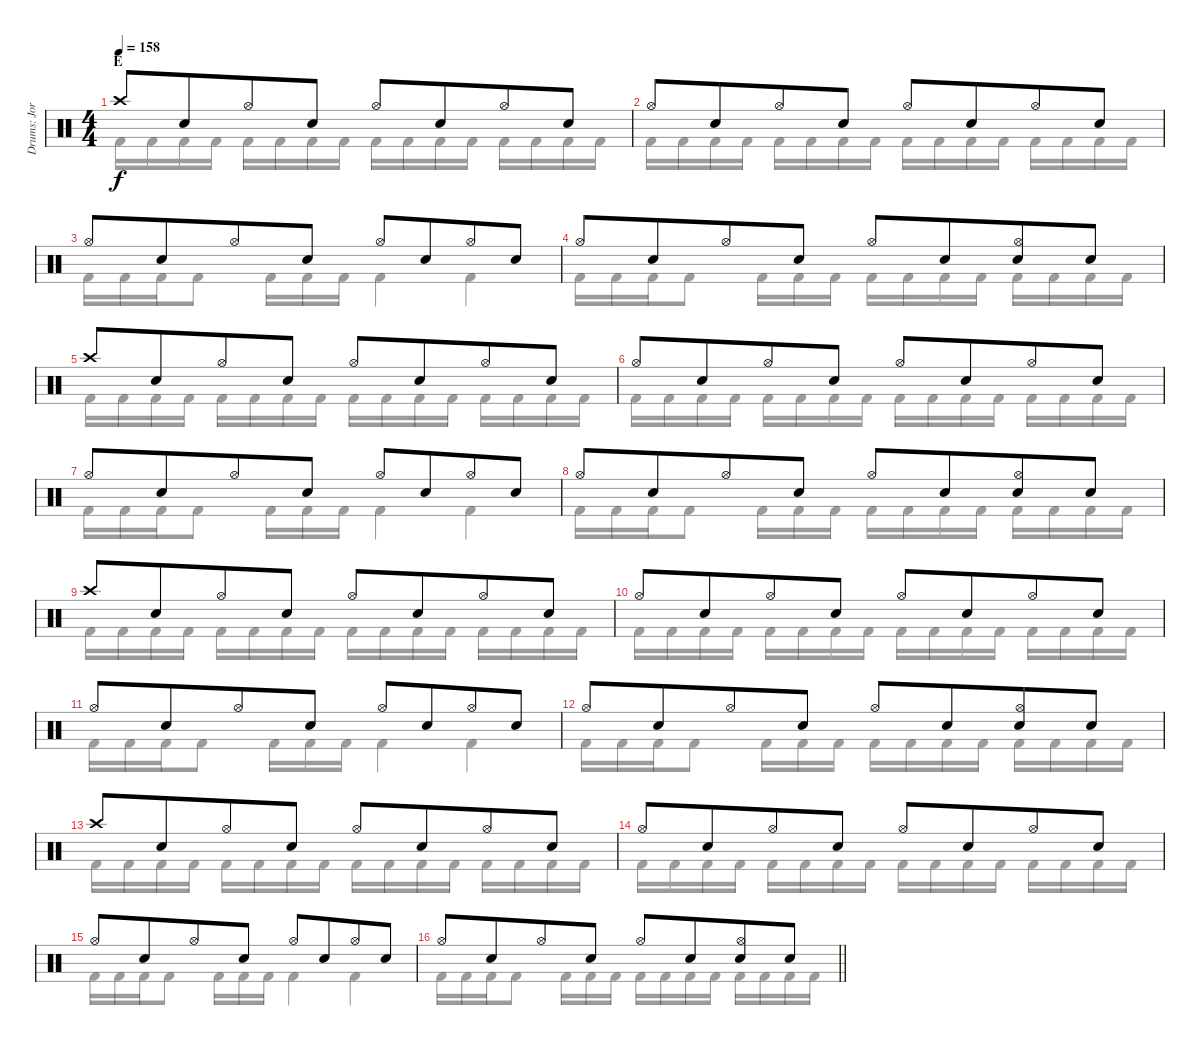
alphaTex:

\track ("Drums: Jorg" "Drums: Jor") {instrument percussion}
\staff {score}
\articulation defaults
\voice
\ts (4 4)
\section ("" "E")
\tempo 158
\clef neutral
\ks c "Crash high (hit)".8{dy f} "Snare (hit) 2".8{beam merge} "Hi-Hat (open)".8 "Snare (hit) 2".8 "Hi-Hat (open)".8 "Snare (hit) 2".8{beam merge} "Hi-Hat (open)".8 "Snare (hit) 2".8
|
"Hi-Hat (open)".8 "Snare (hit) 2".8{beam merge} "Hi-Hat (open)".8 "Snare (hit) 2".8 "Hi-Hat (open)".8 "Snare (hit) 2".8{beam merge} "Hi-Hat (open)".8 "Snare (hit) 2".8 |
"Hi-Hat (open)".8 "Snare (hit) 2".8{beam merge} "Hi-Hat (open)".8 "Snare (hit) 2".8 "Hi-Hat (open)".8 "Snare (hit) 2".8{beam merge} "Hi-Hat (open)".8 "Snare (hit) 2".8 |
"Hi-Hat (open)".8 "Snare (hit) 2".8{beam merge} "Hi-Hat (open)".8 "Snare (hit) 2".8 "Hi-Hat (open)".8 "Snare (hit) 2".8{beam merge} ("Hi-Hat (open)" "Snare (hit) 2").8 "Snare (hit) 2".8 |
"Crash high (hit)".8 "Snare (hit) 2".8{beam merge} "Hi-Hat (open)".8 "Snare (hit) 2".8 "Hi-Hat (open)".8 "Snare (hit) 2".8{beam merge} "Hi-Hat (open)".8 "Snare (hit) 2".8 |
"Hi-Hat (open)".8 "Snare (hit) 2".8{beam merge} "Hi-Hat (open)".8 "Snare (hit) 2".8 "Hi-Hat (open)".8 "Snare (hit) 2".8{beam merge} "Hi-Hat (open)".8 "Snare (hit) 2".8 |
"Hi-Hat (open)".8 "Snare (hit) 2".8{beam merge} "Hi-Hat (open)".8 "Snare (hit) 2".8 "Hi-Hat (open)".8 "Snare (hit) 2".8{beam merge} "Hi-Hat (open)".8 "Snare (hit) 2".8 |
"Hi-Hat (open)".8 "Snare (hit) 2".8{beam merge} "Hi-Hat (open)".8 "Snare (hit) 2".8 "Hi-Hat (open)".8 "Snare (hit) 2".8{beam merge} ("Hi-Hat (open)" "Snare (hit) 2").8 "Snare (hit) 2".8 |
"Crash high (hit)".8 "Snare (hit) 2".8{beam merge} "Hi-Hat (open)".8 "Snare (hit) 2".8 "Hi-Hat (open)".8 "Snare (hit) 2".8{beam merge} "Hi-Hat (open)".8 "Snare (hit) 2".8 |
"Hi-Hat (open)".8 "Snare (hit) 2".8{beam merge} "Hi-Hat (open)".8 "Snare (hit) 2".8 "Hi-Hat (open)".8 "Snare (hit) 2".8{beam merge} "Hi-Hat (open)".8 "Snare (hit) 2".8 |
"Hi-Hat (open)".8 "Snare (hit) 2".8{beam merge} "Hi-Hat (open)".8 "Snare (hit) 2".8 "Hi-Hat (open)".8 "Snare (hit) 2".8{beam merge} "Hi-Hat (open)".8 "Snare (hit) 2".8 |
"Hi-Hat (open)".8 "Snare (hit) 2".8{beam merge} "Hi-Hat (open)".8 "Snare (hit) 2".8 "Hi-Hat (open)".8 "Snare (hit) 2".8{beam merge} ("Hi-Hat (open)" "Snare (hit) 2").8 "Snare (hit) 2".8 |
"Crash high (hit)".8 "Snare (hit) 2".8{beam merge} "Hi-Hat (open)".8 "Snare (hit) 2".8 "Hi-Hat (open)".8 "Snare (hit) 2".8{beam merge} "Hi-Hat (open)".8 "Snare (hit) 2".8 |
"Hi-Hat (open)".8 "Snare (hit) 2".8{beam merge} "Hi-Hat (open)".8 "Snare (hit) 2".8 "Hi-Hat (open)".8 "Snare (hit) 2".8{beam merge} "Hi-Hat (open)".8 "Snare (hit) 2".8 |
"Hi-Hat (open)".8 "Snare (hit) 2".8{beam merge} "Hi-Hat (open)".8 "Snare (hit) 2".8 "Hi-Hat (open)".8 "Snare (hit) 2".8{beam merge} "Hi-Hat (open)".8 "Snare (hit) 2".8 |
\barLineRight lightlight "Hi-Hat (open)".8 "Snare (hit) 2".8{beam merge} "Hi-Hat (open)".8 "Snare (hit) 2".8 "Hi-Hat (open)".8 "Snare (hit) 2".8{beam merge}
("Hi-Hat (open)" "Snare (hit) 2").8 "Snare (hit) 2".8
\voice
\clef neutral
\ottava regular
\simile none
\ks c "Kick (hit) 2".16{dy f} "Kick (hit) 2".16 "Kick (hit) 2".16 "Kick (hit) 2".16 "Kick (hit) 2".16 "Kick (hit) 2".16 "Kick (hit) 2".16 "Kick (hit) 2".16 "Kick (hit) 2".16 "Kick (hit) 2".16 "Kick (hit) 2".16 "Kick (hit) 2".16 "Kick (hit) 2".16 "Kick (hit) 2".16 "Kick (hit) 2".16 "Kick (hit) 2".16
|
"Kick (hit) 2".16 "Kick (hit) 2".16 "Kick (hit) 2".16 "Kick (hit) 2".16 "Kick (hit) 2".16 "Kick (hit) 2".16 "Kick (hit) 2".16 "Kick (hit) 2".16 "Kick (hit) 2".16 "Kick (hit) 2".16 "Kick (hit) 2".16 "Kick (hit) 2".16 "Kick (hit) 2".16 "Kick (hit) 2".16 "Kick (hit) 2".16 "Kick (hit) 2".16 |
"Kick (hit) 2".16 "Kick (hit) 2".16 "Kick (hit) 2".16 "Kick (hit) 2".8 "Kick (hit) 2".16 "Kick (hit) 2".16 "Kick (hit) 2".16 "Kick (hit) 2".4 "Kick (hit) 2".4 |
"Kick (hit) 2".16 "Kick (hit) 2".16 "Kick (hit) 2".16 "Kick (hit) 2".8 "Kick (hit) 2".16 "Kick (hit) 2".16 "Kick (hit) 2".16 "Kick (hit) 2".16 "Kick (hit) 2".16 "Kick (hit) 2".16 "Kick (hit) 2".16 "Kick (hit) 2".16 "Kick (hit) 2".16 "Kick (hit) 2".16 "Kick (hit) 2".16 |
"Kick (hit) 2".16 "Kick (hit) 2".16 "Kick (hit) 2".16 "Kick (hit) 2".16 "Kick (hit) 2".16 "Kick (hit) 2".16 "Kick (hit) 2".16 "Kick (hit) 2".16 "Kick (hit) 2".16 "Kick (hit) 2".16 "Kick (hit) 2".16 "Kick (hit) 2".16 "Kick (hit) 2".16 "Kick (hit) 2".16 "Kick (hit) 2".16 "Kick (hit) 2".16 |
"Kick (hit) 2".16 "Kick (hit) 2".16 "Kick (hit) 2".16 "Kick (hit) 2".16 "Kick (hit) 2".16 "Kick (hit) 2".16 "Kick (hit) 2".16 "Kick (hit) 2".16 "Kick (hit) 2".16 "Kick (hit) 2".16 "Kick (hit) 2".16 "Kick (hit) 2".16 "Kick (hit) 2".16 "Kick (hit) 2".16 "Kick (hit) 2".16 "Kick (hit) 2".16 |
"Kick (hit) 2".16 "Kick (hit) 2".16 "Kick (hit) 2".16 "Kick (hit) 2".8 "Kick (hit) 2".16 "Kick (hit) 2".16 "Kick (hit) 2".16 "Kick (hit) 2".4 "Kick (hit) 2".4 |
"Kick (hit) 2".16 "Kick (hit) 2".16 "Kick (hit) 2".16 "Kick (hit) 2".8 "Kick (hit) 2".16 "Kick (hit) 2".16 "Kick (hit) 2".16 "Kick (hit) 2".16 "Kick (hit) 2".16 "Kick (hit) 2".16 "Kick (hit) 2".16 "Kick (hit) 2".16 "Kick (hit) 2".16 "Kick (hit) 2".16 "Kick (hit) 2".16 |
"Kick (hit) 2".16 "Kick (hit) 2".16 "Kick (hit) 2".16 "Kick (hit) 2".16 "Kick (hit) 2".16 "Kick (hit) 2".16 "Kick (hit) 2".16 "Kick (hit) 2".16 "Kick (hit) 2".16 "Kick (hit) 2".16 "Kick (hit) 2".16 "Kick (hit) 2".16 "Kick (hit) 2".16 "Kick (hit) 2".16 "Kick (hit) 2".16 "Kick (hit) 2".16 |
"Kick (hit) 2".16 "Kick (hit) 2".16 "Kick (hit) 2".16 "Kick (hit) 2".16 "Kick (hit) 2".16 "Kick (hit) 2".16 "Kick (hit) 2".16 "Kick (hit) 2".16 "Kick (hit) 2".16 "Kick (hit) 2".16 "Kick (hit) 2".16 "Kick (hit) 2".16 "Kick (hit) 2".16 "Kick (hit) 2".16 "Kick (hit) 2".16 "Kick (hit) 2".16 |
"Kick (hit) 2".16 "Kick (hit) 2".16 "Kick (hit) 2".16 "Kick (hit) 2".8 "Kick (hit) 2".16 "Kick (hit) 2".16 "Kick (hit) 2".16 "Kick (hit) 2".4 "Kick (hit) 2".4 |
"Kick (hit) 2".16 "Kick (hit) 2".16 "Kick (hit) 2".16 "Kick (hit) 2".8 "Kick (hit) 2".16 "Kick (hit) 2".16 "Kick (hit) 2".16 "Kick (hit) 2".16 "Kick (hit) 2".16 "Kick (hit) 2".16 "Kick (hit) 2".16 "Kick (hit) 2".16 "Kick (hit) 2".16 "Kick (hit) 2".16 "Kick (hit) 2".16 |
"Kick (hit) 2".16 "Kick (hit) 2".16 "Kick (hit) 2".16 "Kick (hit) 2".16 "Kick (hit) 2".16 "Kick (hit) 2".16 "Kick (hit) 2".16 "Kick (hit) 2".16 "Kick (hit) 2".16 "Kick (hit) 2".16 "Kick (hit) 2".16 "Kick (hit) 2".16 "Kick (hit) 2".16 "Kick (hit) 2".16 "Kick (hit) 2".16 "Kick (hit) 2".16 |
"Kick (hit) 2".16 "Kick (hit) 2".16 "Kick (hit) 2".16 "Kick (hit) 2".16 "Kick (hit) 2".16 "Kick (hit) 2".16 "Kick (hit) 2".16 "Kick (hit) 2".16 "Kick (hit) 2".16 "Kick (hit) 2".16 "Kick (hit) 2".16 "Kick (hit) 2".16 "Kick (hit) 2".16 "Kick (hit) 2".16 "Kick (hit) 2".16 "Kick (hit) 2".16 |
"Kick (hit) 2".16 "Kick (hit) 2".16 "Kick (hit) 2".16 "Kick (hit) 2".8 "Kick (hit) 2".16 "Kick (hit) 2".16 "Kick (hit) 2".16 "Kick (hit) 2".4 "Kick (hit) 2".4 |
\barLineRight lightlight "Kick (hit) 2".16 "Kick (hit) 2".16 "Kick (hit) 2".16 "Kick (hit) 2".8 "Kick (hit) 2".16 "Kick (hit) 2".16 "Kick (hit) 2".16 "Kick (hit) 2".16 "Kick (hit) 2".16 "Kick (hit) 2".16 "Kick (hit) 2".16 "Kick (hit) 2".16 "Kick (hit) 2".16 "Kick (hit) 2".16 "Kick (hit) 2".16
